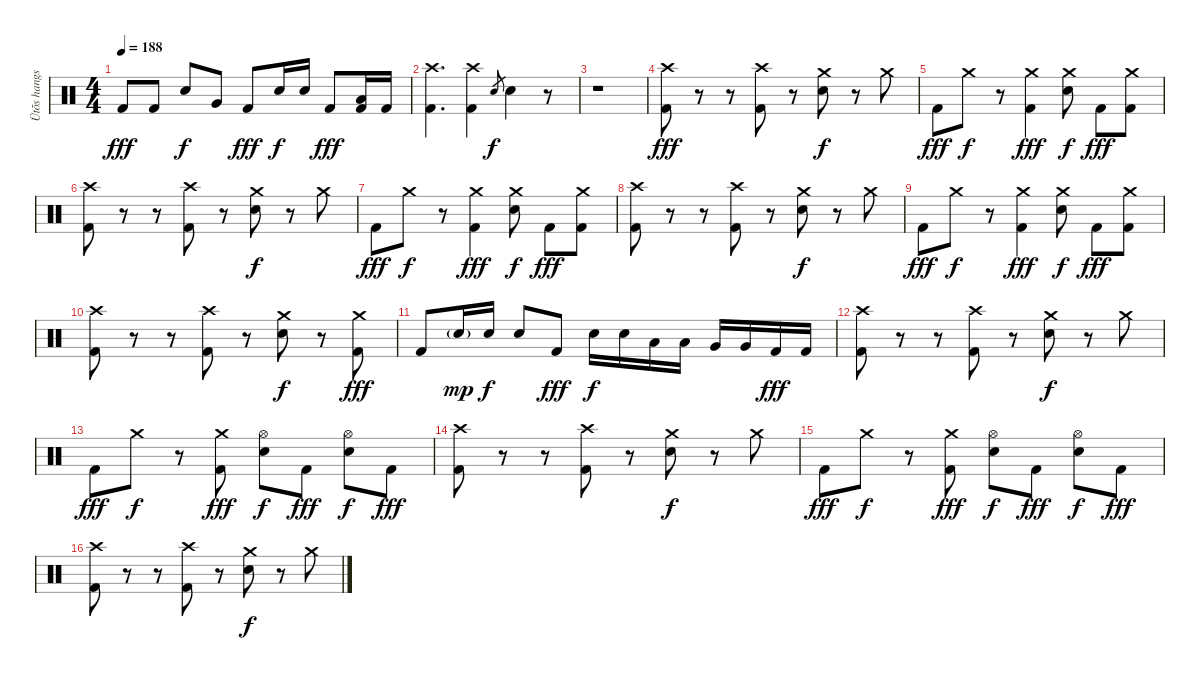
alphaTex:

\track ("Ütõs hangszer" "Ütõs hangs") {instrument percussion}
\staff {score}
\articulation defaults
\ts (4 4)
\tempo 188
\clef neutral
\ks c "Kick (hit) 2".8{dy fff} "Kick (hit) 2".8 "Electric Snare (hit)".8{dy f} "Very Low Tom (hit)".8 "Kick (hit) 2".8{dy fff} "Electric Snare (hit)".16{dy f} "Electric Snare (hit)".16 "Kick (hit) 2".8{dy fff}
("Low Tom (hit)" "Kick (hit) 2").16 "Kick (hit) 2".16 |
("Crash high (hit)" "Kick (hit) 2").4{d} ("Crash high (hit)" "Kick (hit) 2").4 "Electric Snare (hit)".8{gr dy f} "Electric Snare (hit)".4 r.8 |
r.1 |
("Crash high (hit)" "Kick (hit) 2").8{dy fff} r.8 r.8 ("Crash high (hit)" "Kick (hit) 2").8 r.8 ("Crash medium (hit)" "Electric Snare (hit)").8{dy f} r.8 "Crash medium (hit)".8 |
"Kick (hit) 2".8{dy fff} "Crash medium (hit)".8{dy f} r.8 ("Crash medium (hit)" "Kick (hit) 2").4{dy fff} ("Crash medium (hit)" "Electric Snare (hit)").8{dy f} "Kick (hit) 2".8{dy fff} ("Crash medium (hit)" "Kick (hit) 2").8 |
("Crash high (hit)" "Kick (hit) 2").8 r.8 r.8 ("Crash high (hit)" "Kick (hit) 2").8 r.8 ("Crash medium (hit)" "Electric Snare (hit)").8{dy f} r.8 "Crash medium (hit)".8 |
"Kick (hit) 2".8{dy fff} "Crash medium (hit)".8{dy f} r.8 ("Crash medium (hit)" "Kick (hit) 2").4{dy fff} ("Crash medium (hit)" "Electric Snare (hit)").8{dy f} "Kick (hit) 2".8{dy fff} ("Crash medium (hit)" "Kick (hit) 2").8 |
("Crash high (hit)" "Kick (hit) 2").8 r.8 r.8 ("Crash high (hit)" "Kick (hit) 2").8 r.8 ("Crash medium (hit)" "Electric Snare (hit)").8{dy f} r.8 "Crash medium (hit)".8 |
"Kick (hit) 2".8{dy fff} "Crash medium (hit)".8{dy f} r.8 ("Crash medium (hit)" "Kick (hit) 2").4{dy fff} ("Crash medium (hit)" "Electric Snare (hit)").8{dy f} "Kick (hit) 2".8{dy fff} ("Crash medium (hit)" "Kick (hit) 2").8 |
("Crash high (hit)" "Kick (hit) 2").8 r.8 r.8 ("Crash high (hit)" "Kick (hit) 2").8 r.8 ("Crash medium (hit)" "Electric Snare (hit)").8{dy f} r.8 ("Crash medium (hit)" "Kick (hit) 2").8{dy fff} |
"Kick (hit) 2".8 "Electric Snare (hit)"{g}.16{dy mp} "Electric Snare (hit)".16{dy f} "Electric Snare (hit)".8 "Kick (hit) 2".8{dy fff} "Electric Snare (hit)".16{dy f} "Electric Snare (hit)".16 "Low Tom (hit)".16 "Low Tom (hit)".16 "Very Low Tom (hit)".16 "Very Low Tom (hit)".16 "Kick (hit) 2".16{dy fff} "Kick (hit) 2".16 |
("Crash high (hit)" "Kick (hit) 2").8 r.8 r.8 ("Crash high (hit)" "Kick (hit) 2").8 r.8 ("Crash medium (hit)" "Electric Snare (hit)").8{dy f} r.8 "Crash medium (hit)".8 |
"Kick (hit) 2".8{dy fff} "Crash medium (hit)".8{dy f} r.8 ("Crash medium (hit)" "Kick (hit) 2").8{dy fff} ("Hi-Hat (open)" "Electric Snare (hit)").8{dy f} "Kick (hit) 2".8{dy fff} ("Hi-Hat (open)" "Electric Snare (hit)").8{dy f} "Kick (hit) 2".8{dy fff} |
("Crash high (hit)" "Kick (hit) 2").8 r.8 r.8 ("Crash high (hit)" "Kick (hit) 2").8 r.8 ("Crash medium (hit)" "Electric Snare (hit)").8{dy f} r.8 "Crash medium (hit)".8 |
"Kick (hit) 2".8{dy fff} "Crash medium (hit)".8{dy f} r.8 ("Crash medium (hit)" "Kick (hit) 2").8{dy fff} ("Hi-Hat (open)" "Electric Snare (hit)").8{dy f} "Kick (hit) 2".8{dy fff} ("Hi-Hat (open)" "Electric Snare (hit)").8{dy f} "Kick (hit) 2".8{dy fff} |
("Crash high (hit)" "Kick (hit) 2").8 r.8 r.8 ("Crash high (hit)" "Kick (hit) 2").8 r.8 ("Crash medium (hit)" "Electric Snare (hit)").8{dy f} r.8 "Crash medium (hit)".8
